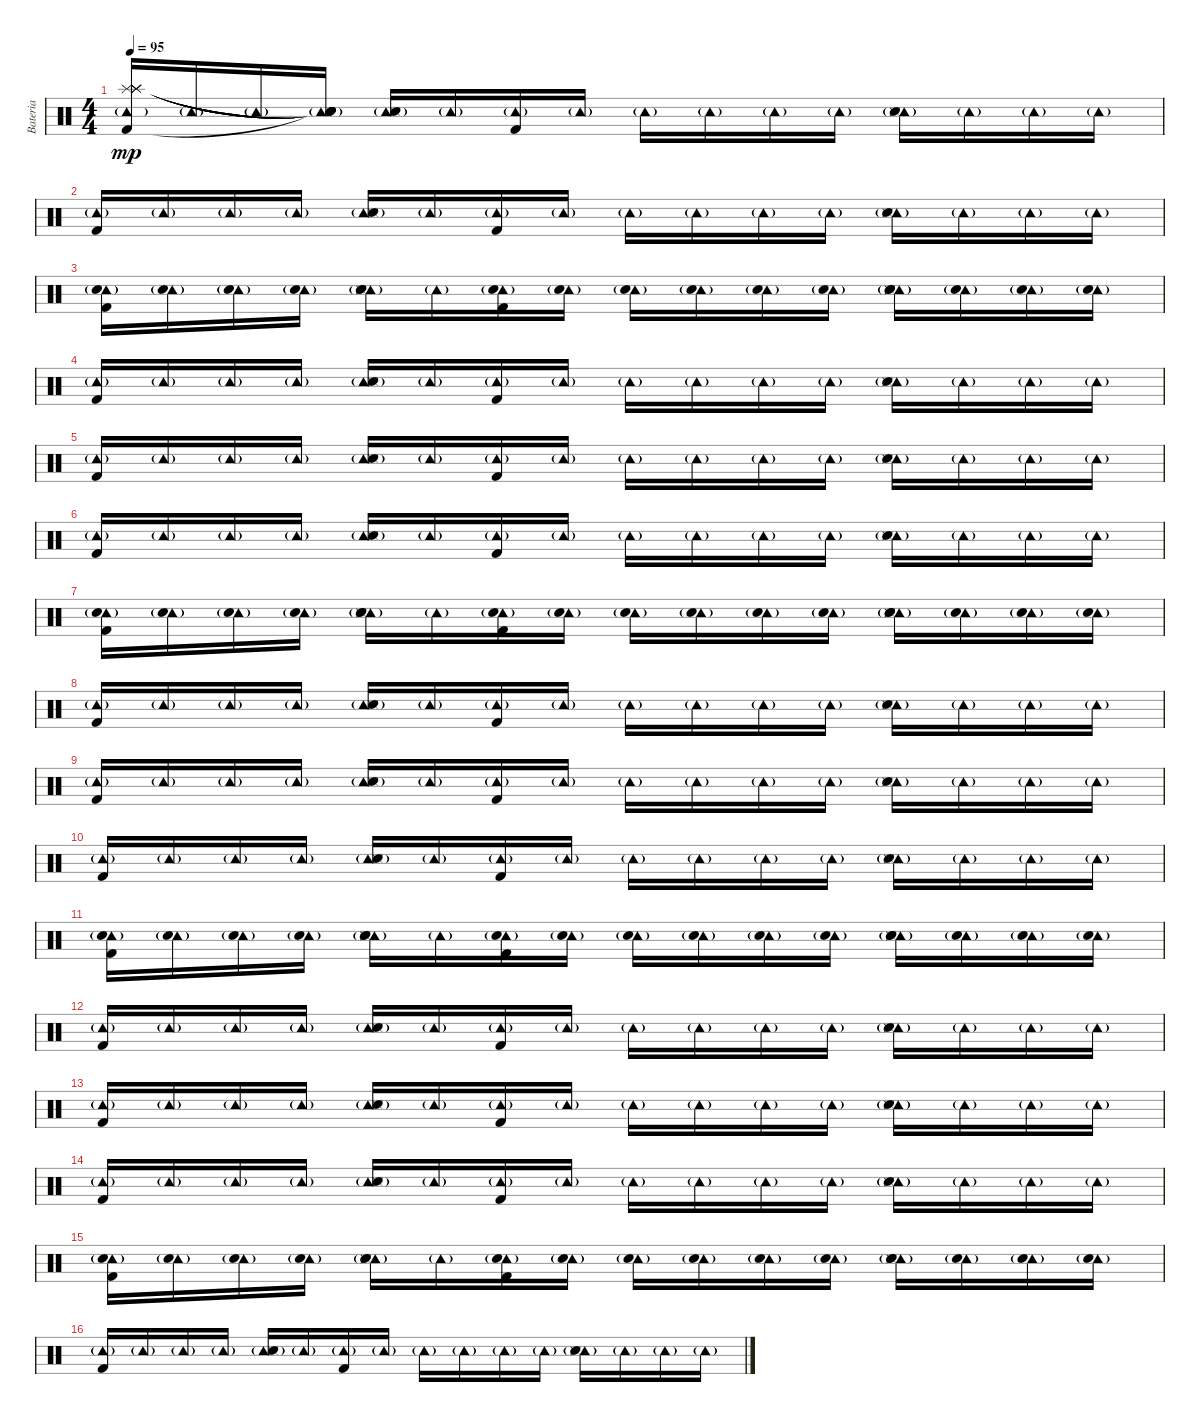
\track ("Bateria" "Bateria") {instrument percussion}
\staff {score}
\articulation defaults
\ts (4 4)
\tempo 95
\clef neutral
\ks c
("Tambourine (hit)"{g} "Splash (hit)" "Splash (hit)" "Splash (hit)" "Splash (hit)" "Kick (hit) 2").16{dy mp} "Tambourine (hit)"{g}.16 "Tambourine (hit)"{g}.16 ("Tambourine (hit)"{g} "Snare (hit)"{t} "Snare (hit)"{t} "Snare (hit)"{t} "Snare (hit)"{t} "Snare (hit)"{t}).16 ("Tambourine (hit)"{g} "Snare (side stick) 3" "Snare (hit) 2").16 "Tambourine (hit)"{g}.16 ("Tambourine (hit)"{g} "Kick (hit) 2").16 "Tambourine (hit)"{g}.16 "Tambourine (hit)"{g}.16 "Tambourine (hit)"{g}.16 "Tambourine (hit)"{g}.16 "Tambourine (hit)"{g}.16 ("Tambourine (hit)"{g} "Snare (side stick) 3" "Snare (hit) 2").16 "Tambourine (hit)"{g}.16 "Tambourine (hit)"{g}.16 "Tambourine (hit)"{g}.16 |
("Tambourine (hit)"{g} "Kick (hit) 2").16 "Tambourine (hit)"{g}.16 "Tambourine (hit)"{g}.16 "Tambourine (hit)"{g}.16 ("Tambourine (hit)"{g} "Snare (side stick) 3" "Snare (hit) 2").16 "Tambourine (hit)"{g}.16 ("Tambourine (hit)"{g} "Kick (hit) 2").16 "Tambourine (hit)"{g}.16 "Tambourine (hit)"{g}.16 "Tambourine (hit)"{g}.16 "Tambourine (hit)"{g}.16 "Tambourine (hit)"{g}.16 ("Tambourine (hit)"{g} "Snare (side stick) 3" "Snare (hit) 2").16 "Tambourine (hit)"{g}.16 "Tambourine (hit)"{g}.16 "Tambourine (hit)"{g}.16 |
("Tambourine (hit)"{g} "Hand Clap (hit)" "Kick (hit) 2").16 ("Tambourine (hit)"{g} "Hand Clap (hit)").16 ("Tambourine (hit)"{g} "Hand Clap (hit)").16 ("Tambourine (hit)"{g} "Hand Clap (hit)").16 ("Tambourine (hit)"{g} "Hand Clap (hit)" "Snare (side stick) 3" "Snare (hit) 2").16 "Tambourine (hit)"{g}.16 ("Tambourine (hit)"{g} "Hand Clap (hit)" "Kick (hit) 2").16 ("Tambourine (hit)"{g} "Hand Clap (hit)").16 ("Tambourine (hit)"{g} "Hand Clap (hit)").16 ("Tambourine (hit)"{g} "Hand Clap (hit)").16 ("Tambourine (hit)"{g} "Hand Clap (hit)").16 ("Tambourine (hit)"{g} "Hand Clap (hit)").16 ("Tambourine (hit)"{g} "Hand Clap (hit)" "Snare (side stick) 3" "Snare (hit) 2").16 ("Tambourine (hit)"{g} "Hand Clap (hit)").16 ("Tambourine (hit)"{g} "Hand Clap (hit)").16 ("Tambourine (hit)"{g} "Hand Clap (hit)").16 |
("Tambourine (hit)"{g} "Kick (hit) 2").16 "Tambourine (hit)"{g}.16 "Tambourine (hit)"{g}.16 "Tambourine (hit)"{g}.16 ("Tambourine (hit)"{g} "Snare (side stick) 3" "Snare (hit) 2").16 "Tambourine (hit)"{g}.16 ("Tambourine (hit)"{g} "Kick (hit) 2").16 "Tambourine (hit)"{g}.16 "Tambourine (hit)"{g}.16 "Tambourine (hit)"{g}.16 "Tambourine (hit)"{g}.16 "Tambourine (hit)"{g}.16 ("Tambourine (hit)"{g} "Snare (side stick) 3" "Snare (hit) 2").16 "Tambourine (hit)"{g}.16 "Tambourine (hit)"{g}.16 "Tambourine (hit)"{g}.16 |
("Tambourine (hit)"{g} "Kick (hit) 2").16 "Tambourine (hit)"{g}.16 "Tambourine (hit)"{g}.16 "Tambourine (hit)"{g}.16 ("Tambourine (hit)"{g} "Snare (side stick) 3" "Snare (hit) 2").16 "Tambourine (hit)"{g}.16 ("Tambourine (hit)"{g} "Kick (hit) 2").16 "Tambourine (hit)"{g}.16 "Tambourine (hit)"{g}.16 "Tambourine (hit)"{g}.16 "Tambourine (hit)"{g}.16 "Tambourine (hit)"{g}.16 ("Tambourine (hit)"{g} "Snare (side stick) 3" "Snare (hit) 2").16 "Tambourine (hit)"{g}.16 "Tambourine (hit)"{g}.16 "Tambourine (hit)"{g}.16 |
("Tambourine (hit)"{g} "Kick (hit) 2").16 "Tambourine (hit)"{g}.16 "Tambourine (hit)"{g}.16 "Tambourine (hit)"{g}.16 ("Tambourine (hit)"{g} "Snare (side stick) 3" "Snare (hit) 2").16 "Tambourine (hit)"{g}.16 ("Tambourine (hit)"{g} "Kick (hit) 2").16 "Tambourine (hit)"{g}.16 "Tambourine (hit)"{g}.16 "Tambourine (hit)"{g}.16 "Tambourine (hit)"{g}.16 "Tambourine (hit)"{g}.16 ("Tambourine (hit)"{g} "Snare (side stick) 3" "Snare (hit) 2").16 "Tambourine (hit)"{g}.16 "Tambourine (hit)"{g}.16 "Tambourine (hit)"{g}.16 |
("Tambourine (hit)"{g} "Hand Clap (hit)" "Kick (hit) 2").16 ("Tambourine (hit)"{g} "Hand Clap (hit)").16 ("Tambourine (hit)"{g} "Hand Clap (hit)").16 ("Tambourine (hit)"{g} "Hand Clap (hit)").16 ("Tambourine (hit)"{g} "Hand Clap (hit)" "Snare (side stick) 3" "Snare (hit) 2").16 "Tambourine (hit)"{g}.16 ("Tambourine (hit)"{g} "Hand Clap (hit)" "Kick (hit) 2").16 ("Tambourine (hit)"{g} "Hand Clap (hit)").16 ("Tambourine (hit)"{g} "Hand Clap (hit)").16 ("Tambourine (hit)"{g} "Hand Clap (hit)").16 ("Tambourine (hit)"{g} "Hand Clap (hit)").16 ("Tambourine (hit)"{g} "Hand Clap (hit)").16 ("Tambourine (hit)"{g} "Hand Clap (hit)" "Snare (side stick) 3" "Snare (hit) 2").16 ("Tambourine (hit)"{g} "Hand Clap (hit)").16 ("Tambourine (hit)"{g} "Hand Clap (hit)").16 ("Tambourine (hit)"{g} "Hand Clap (hit)").16 |
("Tambourine (hit)"{g} "Kick (hit) 2").16 "Tambourine (hit)"{g}.16 "Tambourine (hit)"{g}.16 "Tambourine (hit)"{g}.16 ("Tambourine (hit)"{g} "Snare (side stick) 3" "Snare (hit) 2").16 "Tambourine (hit)"{g}.16 ("Tambourine (hit)"{g} "Kick (hit) 2").16 "Tambourine (hit)"{g}.16 "Tambourine (hit)"{g}.16 "Tambourine (hit)"{g}.16 "Tambourine (hit)"{g}.16 "Tambourine (hit)"{g}.16 ("Tambourine (hit)"{g} "Snare (side stick) 3" "Snare (hit) 2").16 "Tambourine (hit)"{g}.16 "Tambourine (hit)"{g}.16 "Tambourine (hit)"{g}.16 |
("Tambourine (hit)"{g} "Kick (hit) 2").16 "Tambourine (hit)"{g}.16 "Tambourine (hit)"{g}.16 "Tambourine (hit)"{g}.16 ("Tambourine (hit)"{g} "Snare (side stick) 3" "Snare (hit) 2").16 "Tambourine (hit)"{g}.16 ("Tambourine (hit)"{g} "Kick (hit) 2").16 "Tambourine (hit)"{g}.16 "Tambourine (hit)"{g}.16 "Tambourine (hit)"{g}.16 "Tambourine (hit)"{g}.16 "Tambourine (hit)"{g}.16 ("Tambourine (hit)"{g} "Snare (side stick) 3" "Snare (hit) 2").16 "Tambourine (hit)"{g}.16 "Tambourine (hit)"{g}.16 "Tambourine (hit)"{g}.16 |
("Tambourine (hit)"{g} "Kick (hit) 2").16 "Tambourine (hit)"{g}.16 "Tambourine (hit)"{g}.16 "Tambourine (hit)"{g}.16 ("Tambourine (hit)"{g} "Snare (side stick) 3" "Snare (hit) 2").16 "Tambourine (hit)"{g}.16 ("Tambourine (hit)"{g} "Kick (hit) 2").16 "Tambourine (hit)"{g}.16 "Tambourine (hit)"{g}.16 "Tambourine (hit)"{g}.16 "Tambourine (hit)"{g}.16 "Tambourine (hit)"{g}.16 ("Tambourine (hit)"{g} "Snare (side stick) 3" "Snare (hit) 2").16 "Tambourine (hit)"{g}.16 "Tambourine (hit)"{g}.16 "Tambourine (hit)"{g}.16 |
("Tambourine (hit)"{g} "Hand Clap (hit)" "Kick (hit) 2").16 ("Tambourine (hit)"{g} "Hand Clap (hit)").16 ("Tambourine (hit)"{g} "Hand Clap (hit)").16 ("Tambourine (hit)"{g} "Hand Clap (hit)").16 ("Tambourine (hit)"{g} "Hand Clap (hit)" "Snare (side stick) 3" "Snare (hit) 2").16 "Tambourine (hit)"{g}.16 ("Tambourine (hit)"{g} "Hand Clap (hit)" "Kick (hit) 2").16 ("Tambourine (hit)"{g} "Hand Clap (hit)").16 ("Tambourine (hit)"{g} "Hand Clap (hit)").16 ("Tambourine (hit)"{g} "Hand Clap (hit)").16 ("Tambourine (hit)"{g} "Hand Clap (hit)").16 ("Tambourine (hit)"{g} "Hand Clap (hit)").16 ("Tambourine (hit)"{g} "Hand Clap (hit)" "Snare (side stick) 3" "Snare (hit) 2").16 ("Tambourine (hit)"{g} "Hand Clap (hit)").16 ("Tambourine (hit)"{g} "Hand Clap (hit)").16 ("Tambourine (hit)"{g} "Hand Clap (hit)").16 |
("Tambourine (hit)"{g} "Kick (hit) 2").16 "Tambourine (hit)"{g}.16 "Tambourine (hit)"{g}.16 "Tambourine (hit)"{g}.16 ("Tambourine (hit)"{g} "Snare (side stick) 3" "Snare (hit) 2").16 "Tambourine (hit)"{g}.16 ("Tambourine (hit)"{g} "Kick (hit) 2").16 "Tambourine (hit)"{g}.16 "Tambourine (hit)"{g}.16 "Tambourine (hit)"{g}.16 "Tambourine (hit)"{g}.16 "Tambourine (hit)"{g}.16 ("Tambourine (hit)"{g} "Snare (side stick) 3" "Snare (hit) 2").16 "Tambourine (hit)"{g}.16 "Tambourine (hit)"{g}.16 "Tambourine (hit)"{g}.16 |
("Tambourine (hit)"{g} "Kick (hit) 2").16 "Tambourine (hit)"{g}.16 "Tambourine (hit)"{g}.16 "Tambourine (hit)"{g}.16 ("Tambourine (hit)"{g} "Snare (side stick) 3" "Snare (hit) 2").16 "Tambourine (hit)"{g}.16 ("Tambourine (hit)"{g} "Kick (hit) 2").16 "Tambourine (hit)"{g}.16 "Tambourine (hit)"{g}.16 "Tambourine (hit)"{g}.16 "Tambourine (hit)"{g}.16 "Tambourine (hit)"{g}.16 ("Tambourine (hit)"{g} "Snare (side stick) 3" "Snare (hit) 2").16 "Tambourine (hit)"{g}.16 "Tambourine (hit)"{g}.16 "Tambourine (hit)"{g}.16 |
("Tambourine (hit)"{g} "Kick (hit) 2").16 "Tambourine (hit)"{g}.16 "Tambourine (hit)"{g}.16 "Tambourine (hit)"{g}.16 ("Tambourine (hit)"{g} "Snare (side stick) 3" "Snare (hit) 2").16 "Tambourine (hit)"{g}.16 ("Tambourine (hit)"{g} "Kick (hit) 2").16 "Tambourine (hit)"{g}.16 "Tambourine (hit)"{g}.16 "Tambourine (hit)"{g}.16 "Tambourine (hit)"{g}.16 "Tambourine (hit)"{g}.16 ("Tambourine (hit)"{g} "Snare (side stick) 3" "Snare (hit) 2").16 "Tambourine (hit)"{g}.16 "Tambourine (hit)"{g}.16 "Tambourine (hit)"{g}.16 |
("Tambourine (hit)"{g} "Hand Clap (hit)" "Kick (hit) 2").16 ("Tambourine (hit)"{g} "Hand Clap (hit)").16 ("Tambourine (hit)"{g} "Hand Clap (hit)").16 ("Tambourine (hit)"{g} "Hand Clap (hit)").16 ("Tambourine (hit)"{g} "Hand Clap (hit)" "Snare (side stick) 3" "Snare (hit) 2").16 "Tambourine (hit)"{g}.16 ("Tambourine (hit)"{g} "Hand Clap (hit)" "Kick (hit) 2").16 ("Tambourine (hit)"{g} "Hand Clap (hit)").16 ("Tambourine (hit)"{g} "Hand Clap (hit)").16 ("Tambourine (hit)"{g} "Hand Clap (hit)").16 ("Tambourine (hit)"{g} "Hand Clap (hit)").16 ("Tambourine (hit)"{g} "Hand Clap (hit)").16 ("Tambourine (hit)"{g} "Hand Clap (hit)" "Snare (side stick) 3" "Snare (hit) 2").16 ("Tambourine (hit)"{g} "Hand Clap (hit)").16 ("Tambourine (hit)"{g} "Hand Clap (hit)").16 ("Tambourine (hit)"{g} "Hand Clap (hit)").16 |
("Tambourine (hit)"{g} "Kick (hit) 2").16 "Tambourine (hit)"{g}.16 "Tambourine (hit)"{g}.16 "Tambourine (hit)"{g}.16 ("Tambourine (hit)"{g} "Snare (side stick) 3" "Snare (hit) 2").16 "Tambourine (hit)"{g}.16 ("Tambourine (hit)"{g} "Kick (hit) 2").16 "Tambourine (hit)"{g}.16 "Tambourine (hit)"{g}.16 "Tambourine (hit)"{g}.16 "Tambourine (hit)"{g}.16 "Tambourine (hit)"{g}.16 ("Tambourine (hit)"{g} "Snare (side stick) 3" "Snare (hit) 2").16 "Tambourine (hit)"{g}.16 "Tambourine (hit)"{g}.16 "Tambourine (hit)"{g}.16
